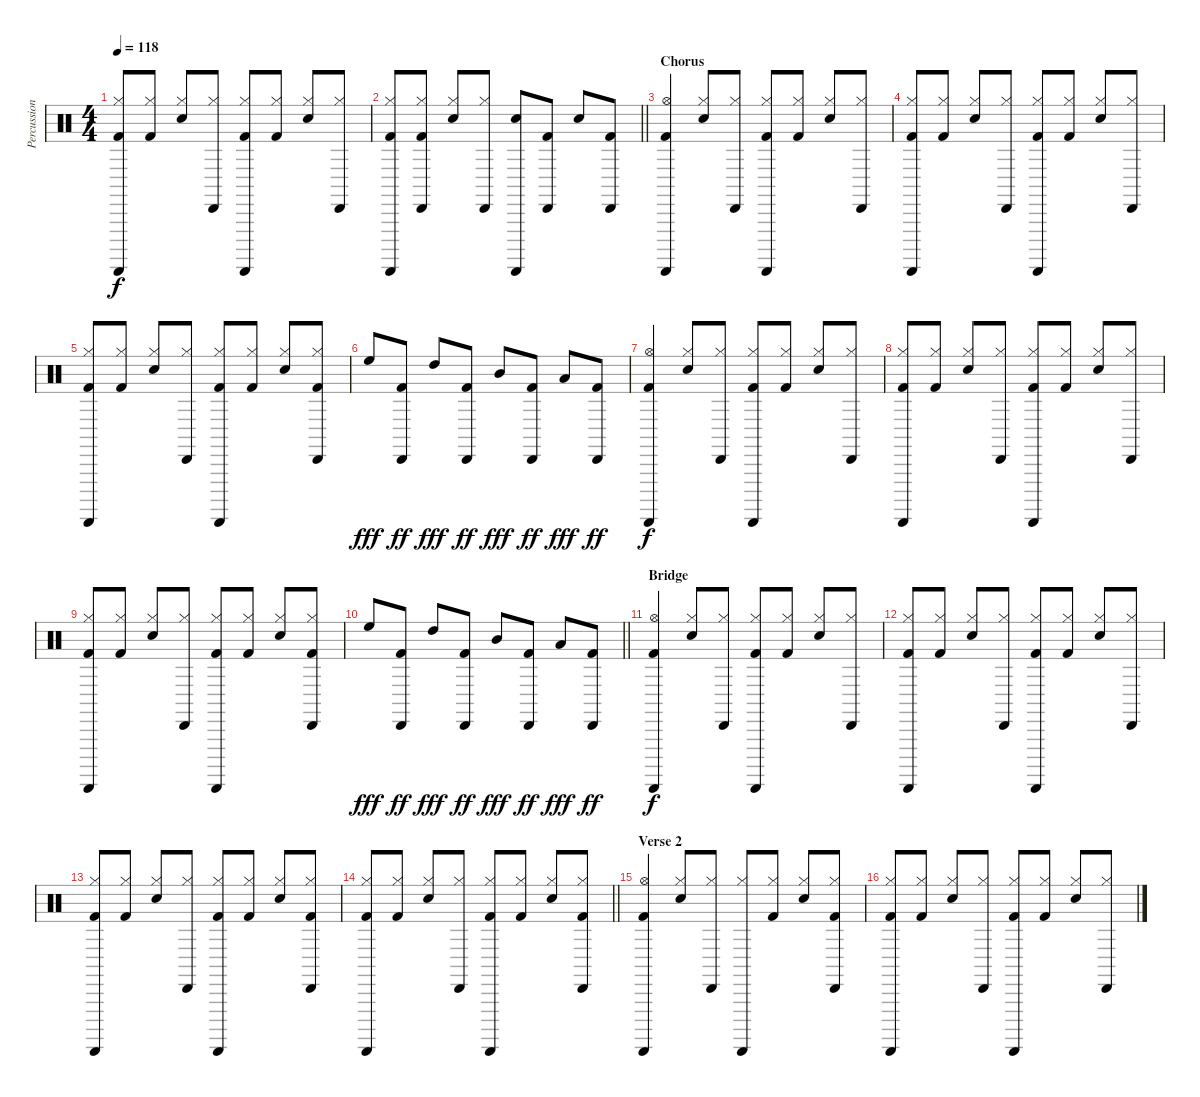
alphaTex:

\track ("Percussions" "Percussion") {instrument percussion}
\staff {score}
\articulation defaults
\ts (4 4)
\tempo 118
\clef neutral
\ks c
("Guiro (scrap-return)" "Hi-Hat (closed)" "Kick (hit) 2").8{dy f} ("Hi-Hat (closed)" "Kick (hit) 2").8 ("Hi-Hat (closed)" "Snare (hit) 2").8 ("Cabasa (hit)" "Hi-Hat (closed)").8 ("Guiro (scrap-return)" "Hi-Hat (closed)" "Kick (hit) 2").8 ("Hi-Hat (closed)" "Kick (hit) 2").8 ("Hi-Hat (closed)" "Snare (hit) 2").8 ("Cabasa (hit)" "Hi-Hat (closed)").8 |
\barLineRight lightlight
("Guiro (scrap-return)" "Hi-Hat (closed)" "Kick (hit) 2").8 ("Cabasa (hit)" "Hi-Hat (closed)" "Kick (hit) 2").8 ("Hi-Hat (closed)" "Snare (hit) 2").8 ("Cabasa (hit)" "Hi-Hat (closed)").8 ("Guiro (scrap-return)" "Snare (hit) 2").8 ("Cabasa (hit)" "Kick (hit) 2").8 "Snare (hit) 2".8 ("Cabasa (hit)" "Kick (hit) 2").8 |
\section ("" "Chorus")
("Guiro (scrap-return)" "Hi-Hat (open)" "Kick (hit) 2").4 ("Hi-Hat (closed)" "Snare (hit) 2").8 ("Cabasa (hit)" "Hi-Hat (closed)").8 ("Guiro (scrap-return)" "Hi-Hat (closed)" "Kick (hit) 2").8 ("Hi-Hat (closed)" "Kick (hit) 2").8 ("Hi-Hat (closed)" "Snare (hit) 2").8 ("Cabasa (hit)" "Hi-Hat (closed)").8 |
("Guiro (scrap-return)" "Hi-Hat (closed)" "Kick (hit) 2").8 ("Hi-Hat (closed)" "Kick (hit) 2").8 ("Hi-Hat (closed)" "Snare (hit) 2").8 ("Cabasa (hit)" "Hi-Hat (closed)").8 ("Guiro (scrap-return)" "Hi-Hat (closed)" "Kick (hit) 2").8 ("Hi-Hat (closed)" "Kick (hit) 2").8 ("Hi-Hat (closed)" "Snare (hit) 2").8 ("Cabasa (hit)" "Hi-Hat (closed)").8 |
("Guiro (scrap-return)" "Hi-Hat (closed)" "Kick (hit) 2").8 ("Hi-Hat (closed)" "Kick (hit) 2").8 ("Hi-Hat (closed)" "Snare (hit) 2").8 ("Cabasa (hit)" "Hi-Hat (closed)").8 ("Guiro (scrap-return)" "Hi-Hat (closed)" "Kick (hit) 2").8 ("Hi-Hat (closed)" "Kick (hit) 2").8 ("Hi-Hat (closed)" "Snare (hit) 2").8 ("Cabasa (hit)" "Hi-Hat (closed)" "Kick (hit) 2").8 |
"High Floor Tom (hit)".8{dy fff} ("Cabasa (hit)" "Kick (hit) 2").8{dy ff} "High Tom (hit)".8{dy fff} ("Cabasa (hit)" "Kick (hit) 2").8{dy ff} "Mid Tom (hit)".8{dy fff} ("Cabasa (hit)" "Kick (hit) 2").8{dy ff} "Low Tom (hit)".8{dy fff} ("Cabasa (hit)" "Kick (hit) 2").8{dy ff} |
("Guiro (scrap-return)" "Hi-Hat (open)" "Kick (hit) 2").4{dy f} ("Hi-Hat (closed)" "Snare (hit) 2").8 ("Cabasa (hit)" "Hi-Hat (closed)").8 ("Guiro (scrap-return)" "Hi-Hat (closed)" "Kick (hit) 2").8 ("Hi-Hat (closed)" "Kick (hit) 2").8 ("Hi-Hat (closed)" "Snare (hit) 2").8 ("Cabasa (hit)" "Hi-Hat (closed)").8 |
("Guiro (scrap-return)" "Hi-Hat (closed)" "Kick (hit) 2").8 ("Hi-Hat (closed)" "Kick (hit) 2").8 ("Hi-Hat (closed)" "Snare (hit) 2").8 ("Cabasa (hit)" "Hi-Hat (closed)").8 ("Guiro (scrap-return)" "Hi-Hat (closed)" "Kick (hit) 2").8 ("Hi-Hat (closed)" "Kick (hit) 2").8 ("Hi-Hat (closed)" "Snare (hit) 2").8 ("Cabasa (hit)" "Hi-Hat (closed)").8 |
("Guiro (scrap-return)" "Hi-Hat (closed)" "Kick (hit) 2").8 ("Hi-Hat (closed)" "Kick (hit) 2").8 ("Hi-Hat (closed)" "Snare (hit) 2").8 ("Cabasa (hit)" "Hi-Hat (closed)").8 ("Guiro (scrap-return)" "Hi-Hat (closed)" "Kick (hit) 2").8 ("Hi-Hat (closed)" "Kick (hit) 2").8 ("Hi-Hat (closed)" "Snare (hit) 2").8 ("Cabasa (hit)" "Hi-Hat (closed)" "Kick (hit) 2").8 |
\barLineRight lightlight "High Floor Tom (hit)".8{dy fff}
("Cabasa (hit)" "Kick (hit) 2").8{dy ff} "High Tom (hit)".8{dy fff} ("Cabasa (hit)" "Kick (hit) 2").8{dy ff} "Mid Tom (hit)".8{dy fff} ("Cabasa (hit)" "Kick (hit) 2").8{dy ff} "Low Tom (hit)".8{dy fff} ("Cabasa (hit)" "Kick (hit) 2").8{dy ff} |
\section ("" "Bridge")
("Guiro (scrap-return)" "Hi-Hat (open)" "Kick (hit) 2").4{dy f} ("Hi-Hat (closed)" "Snare (hit) 2").8 ("Cabasa (hit)" "Hi-Hat (closed)").8 ("Guiro (scrap-return)" "Hi-Hat (closed)" "Kick (hit) 2").8 ("Hi-Hat (closed)" "Kick (hit) 2").8 ("Hi-Hat (closed)" "Snare (hit) 2").8 ("Cabasa (hit)" "Hi-Hat (closed)").8 |
("Guiro (scrap-return)" "Hi-Hat (closed)" "Kick (hit) 2").8 ("Hi-Hat (closed)" "Kick (hit) 2").8 ("Hi-Hat (closed)" "Snare (hit) 2").8 ("Cabasa (hit)" "Hi-Hat (closed)").8 ("Guiro (scrap-return)" "Hi-Hat (closed)" "Kick (hit) 2").8 ("Hi-Hat (closed)" "Kick (hit) 2").8 ("Hi-Hat (closed)" "Snare (hit) 2").8 ("Cabasa (hit)" "Hi-Hat (closed)").8 |
("Guiro (scrap-return)" "Hi-Hat (closed)" "Kick (hit) 2").8 ("Hi-Hat (closed)" "Kick (hit) 2").8 ("Hi-Hat (closed)" "Snare (hit) 2").8 ("Cabasa (hit)" "Hi-Hat (closed)").8 ("Guiro (scrap-return)" "Hi-Hat (closed)" "Kick (hit) 2").8 ("Hi-Hat (closed)" "Kick (hit) 2").8 ("Hi-Hat (closed)" "Snare (hit) 2").8 ("Cabasa (hit)" "Hi-Hat (closed)" "Kick (hit) 2").8 |
\barLineRight lightlight
("Guiro (scrap-return)" "Hi-Hat (closed)" "Kick (hit) 2").8 ("Hi-Hat (closed)" "Kick (hit) 2").8 ("Hi-Hat (closed)" "Snare (hit) 2").8 ("Cabasa (hit)" "Hi-Hat (closed)").8 ("Guiro (scrap-return)" "Hi-Hat (closed)" "Kick (hit) 2").8 ("Hi-Hat (closed)" "Kick (hit) 2").8 ("Hi-Hat (closed)" "Snare (hit) 2").8 ("Cabasa (hit)" "Hi-Hat (closed)" "Kick (hit) 2").8 |
\section ("" "Verse 2")
("Guiro (scrap-return)" "Hi-Hat (open)" "Kick (hit) 2").4 ("Hi-Hat (closed)" "Snare (hit) 2").8 ("Cabasa (hit)" "Hi-Hat (closed)").8 ("Guiro (scrap-return)" "Hi-Hat (closed)").8 ("Hi-Hat (closed)" "Kick (hit) 2").8 ("Hi-Hat (closed)" "Snare (hit) 2").8 ("Cabasa (hit)" "Hi-Hat (closed)" "Kick (hit) 2").8 |
("Guiro (scrap-return)" "Hi-Hat (closed)" "Kick (hit) 2").8 ("Hi-Hat (closed)" "Kick (hit) 2").8 ("Hi-Hat (closed)" "Snare (hit) 2").8 ("Cabasa (hit)" "Hi-Hat (closed)").8 ("Guiro (scrap-return)" "Hi-Hat (closed)" "Kick (hit) 2").8 ("Hi-Hat (closed)" "Kick (hit) 2").8 ("Hi-Hat (closed)" "Snare (hit) 2").8 ("Cabasa (hit)" "Hi-Hat (closed)").8
